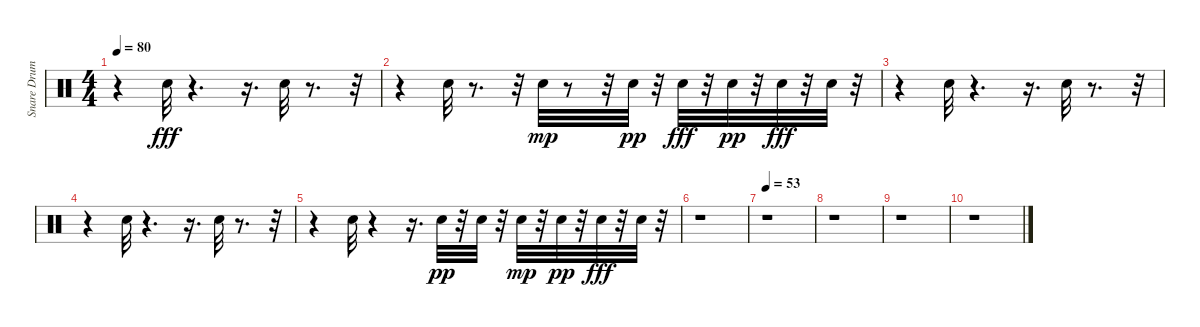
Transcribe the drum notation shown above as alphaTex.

\track ("Snare Drum" "Snare Drum") {instrument percussion}
\staff {score}
\articulation defaults
\ts (4 4)
\tempo 80
\clef neutral
\ks c
r.4{dy fff} "Snare (hit) 2".32 r.4{d} r.16{d} "Snare (hit) 2".32 r.8{d} r.32 |
r.4 "Snare (hit) 2".32 r.8{d} r.32 "Snare (hit) 2".32{dy mp} r.8 r.32 "Snare (hit) 2".32{dy pp} r.32 "Snare (hit) 2".32{dy fff} r.32 "Snare (hit) 2".32{dy pp} r.32 "Snare (hit) 2".32{dy fff} r.32 "Snare (hit) 2".32 r.32 |
r.4 "Snare (hit) 2".32 r.4{d} r.16{d} "Snare (hit) 2".32 r.8{d} r.32 |
r.4 "Snare (hit) 2".32 r.4{d} r.16{d} "Snare (hit) 2".32 r.8{d} r.32 |
r.4 "Snare (hit) 2".32 r.4 r.16{d} "Snare (hit) 2".32{dy pp} r.32 "Snare (hit) 2".32 r.32 "Snare (hit) 2".32{dy mp} r.32 "Snare (hit) 2".32{dy pp} r.32 "Snare (hit) 2".32{dy fff} r.32 "Snare (hit) 2".32 r.32 |
r.1 |
\tempo 53
r.1 |
r.1 |
r.1 |
r.1
